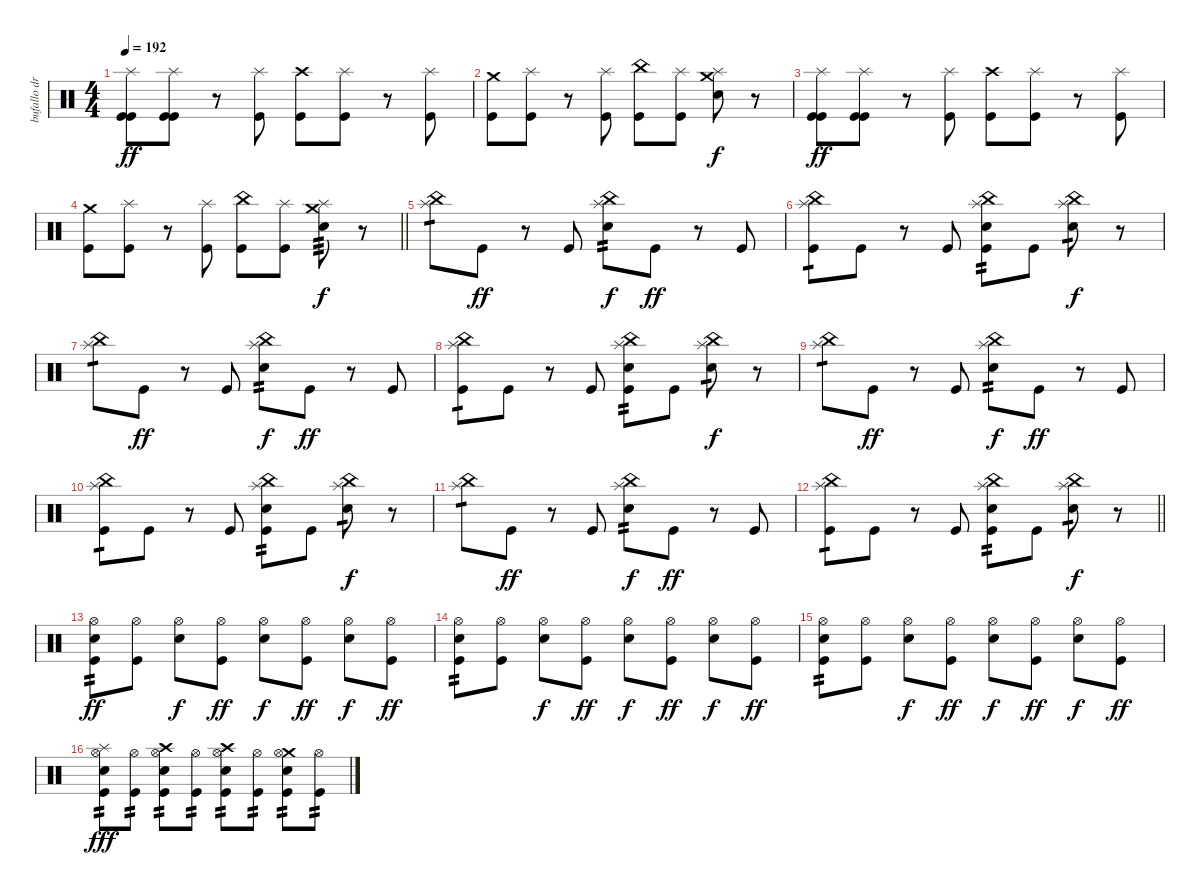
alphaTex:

\track ("bufallo drums" "bufallo dr") {instrument percussion}
\staff {score}
\articulation defaults
\ts (4 4)
\tempo 192
\clef neutral
\ks c
("Splash (hit)" "Kick (hit)" "Kick (hit)").8{dy ff} ("Splash (hit)" "Kick (hit)" "Kick (hit)").8 r.8 ("Splash (hit)" "Kick (hit)").8 ("Crash high (hit)" "Kick (hit)").8 ("Splash (hit)" "Kick (hit)").8 r.8 ("Splash (hit)" "Kick (hit)").8 |
("Crash medium (hit)" "Kick (hit)").8 ("Splash (hit)" "Kick (hit)").8 r.8 ("Splash (hit)" "Kick (hit)").8 ("China (hit)" "Kick (hit)").8 ("Splash (hit)" "Kick (hit)").8 ("Crash medium (hit)" "Splash (hit)" "Electric Snare (hit)").8{dy f} r.8 |
("Splash (hit)" "Kick (hit)" "Kick (hit)").8{dy ff} ("Splash (hit)" "Kick (hit)" "Kick (hit)").8 r.8 ("Splash (hit)" "Kick (hit)").8 ("Crash high (hit)" "Kick (hit)").8 ("Splash (hit)" "Kick (hit)").8 r.8 ("Splash (hit)" "Kick (hit)").8 |
\barLineRight lightlight
("Crash medium (hit)" "Kick (hit)").8 ("Splash (hit)" "Kick (hit)").8 r.8 ("Splash (hit)" "Kick (hit)").8 ("China (hit)" "Kick (hit)").8 ("Splash (hit)" "Kick (hit)").8 ("Crash medium (hit)" "Splash (hit)" "Electric Snare (hit)").8{tp 3 dy f} r.8 |
("China (hit)" "Splash (hit)").8{tp 1} "Kick (hit)".8{dy ff} r.8 "Kick (hit)".8 ("China (hit)" "Splash (hit)" "Electric Snare (hit)").8{tp 2 dy f} "Kick (hit)".8{dy ff} r.8 "Kick (hit)".8 |
("China (hit)" "Splash (hit)" "Kick (hit)").8{tp 1} "Kick (hit)".8 r.8 "Kick (hit)".8 ("China (hit)" "Splash (hit)" "Electric Snare (hit)" "Kick (hit)").8{tp 2} "Kick (hit)".8 ("China (hit)" "Splash (hit)" "Electric Snare (hit)").8{tp 1 dy f} r.8 |
("China (hit)" "Splash (hit)").8{tp 1} "Kick (hit)".8{dy ff} r.8 "Kick (hit)".8 ("China (hit)" "Splash (hit)" "Electric Snare (hit)").8{tp 2 dy f} "Kick (hit)".8{dy ff} r.8 "Kick (hit)".8 |
("China (hit)" "Splash (hit)" "Kick (hit)").8{tp 1} "Kick (hit)".8 r.8 "Kick (hit)".8 ("China (hit)" "Splash (hit)" "Electric Snare (hit)" "Kick (hit)").8{tp 2} "Kick (hit)".8 ("China (hit)" "Splash (hit)" "Electric Snare (hit)").8{tp 1 dy f} r.8 |
("China (hit)" "Splash (hit)").8{tp 1} "Kick (hit)".8{dy ff} r.8 "Kick (hit)".8 ("China (hit)" "Splash (hit)" "Electric Snare (hit)").8{tp 2 dy f} "Kick (hit)".8{dy ff} r.8 "Kick (hit)".8 |
("China (hit)" "Splash (hit)" "Kick (hit)").8{tp 1} "Kick (hit)".8 r.8 "Kick (hit)".8 ("China (hit)" "Splash (hit)" "Electric Snare (hit)" "Kick (hit)").8{tp 2} "Kick (hit)".8 ("China (hit)" "Splash (hit)" "Electric Snare (hit)").8{tp 1 dy f} r.8 |
("China (hit)" "Splash (hit)").8{tp 1} "Kick (hit)".8{dy ff} r.8 "Kick (hit)".8 ("China (hit)" "Splash (hit)" "Electric Snare (hit)").8{tp 2 dy f} "Kick (hit)".8{dy ff} r.8 "Kick (hit)".8 |
\barLineRight lightlight
("China (hit)" "Splash (hit)" "Kick (hit)").8{tp 1} "Kick (hit)".8 r.8 "Kick (hit)".8 ("China (hit)" "Splash (hit)" "Electric Snare (hit)" "Kick (hit)").8{tp 2} "Kick (hit)".8 ("China (hit)" "Splash (hit)" "Electric Snare (hit)").8{tp 1 dy f} r.8 |
("Hi-Hat (open)" "Electric Snare (hit)" "Kick (hit)").8{tp 2 dy ff} ("Hi-Hat (open)" "Kick (hit)").8 ("Hi-Hat (open)" "Electric Snare (hit)").8{dy f} ("Hi-Hat (open)" "Kick (hit)").8{dy ff} ("Hi-Hat (open)" "Electric Snare (hit)").8{dy f} ("Hi-Hat (open)" "Kick (hit)").8{dy ff} ("Hi-Hat (open)" "Electric Snare (hit)").8{dy f} ("Hi-Hat (open)" "Kick (hit)").8{dy ff} |
("Hi-Hat (open)" "Electric Snare (hit)" "Kick (hit)").8{tp 2} ("Hi-Hat (open)" "Kick (hit)").8 ("Hi-Hat (open)" "Electric Snare (hit)").8{dy f} ("Hi-Hat (open)" "Kick (hit)").8{dy ff} ("Hi-Hat (open)" "Electric Snare (hit)").8{dy f} ("Hi-Hat (open)" "Kick (hit)").8{dy ff} ("Hi-Hat (open)" "Electric Snare (hit)").8{dy f} ("Hi-Hat (open)" "Kick (hit)").8{dy ff} |
("Hi-Hat (open)" "Electric Snare (hit)" "Kick (hit)").8{tp 2} ("Hi-Hat (open)" "Kick (hit)").8 ("Hi-Hat (open)" "Electric Snare (hit)").8{dy f} ("Hi-Hat (open)" "Kick (hit)").8{dy ff} ("Hi-Hat (open)" "Electric Snare (hit)").8{dy f} ("Hi-Hat (open)" "Kick (hit)").8{dy ff} ("Hi-Hat (open)" "Electric Snare (hit)").8{dy f} ("Hi-Hat (open)" "Kick (hit)").8{dy ff} |
("Splash (hit)" "Hi-Hat (open)" "Electric Snare (hit)" "Kick (hit)").8{tp 2 dy fff} ("Hi-Hat (open)" "Kick (hit)").8{tp 2} ("Crash high (hit)" "Hi-Hat (open)" "Electric Snare (hit)" "Kick (hit)").8{tp 2} ("Hi-Hat (open)" "Kick (hit)").8{tp 2} ("Crash high (hit)" "Hi-Hat (open)" "Electric Snare (hit)" "Kick (hit)").8{tp 2} ("Hi-Hat (open)" "Kick (hit)").8{tp 2} ("Crash medium (hit)" "Hi-Hat (open)" "Electric Snare (hit)" "Kick (hit)").8{tp 2} ("Hi-Hat (open)" "Kick (hit)").8{tp 2}
